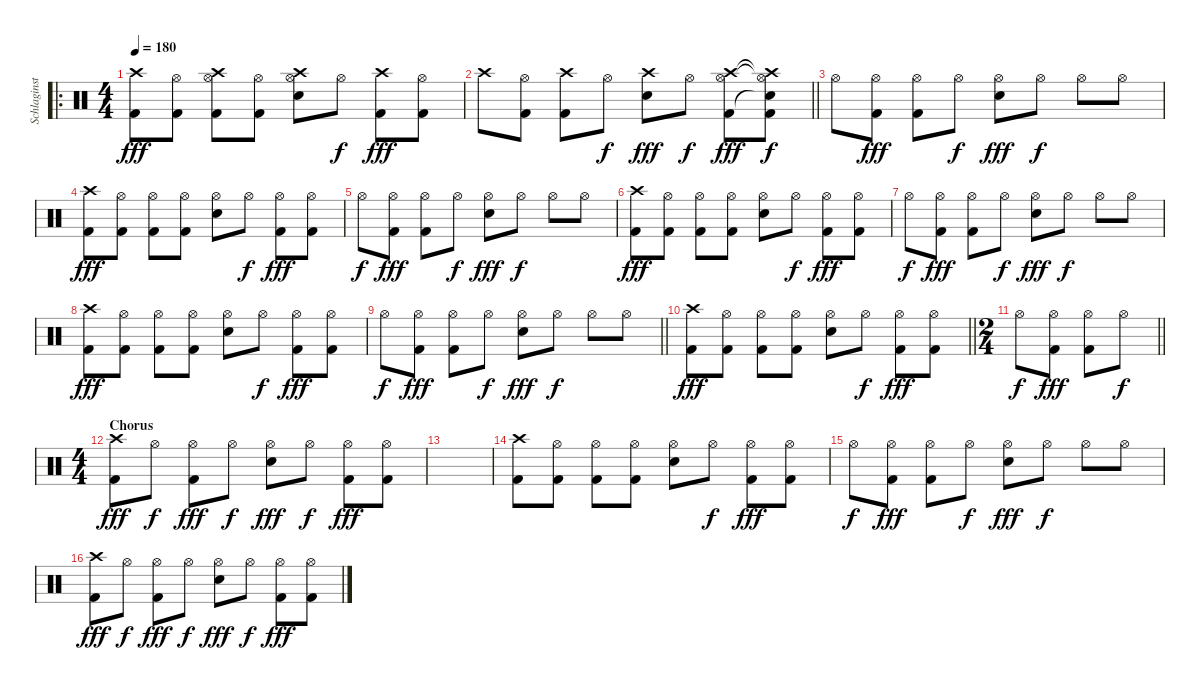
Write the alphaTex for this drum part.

\track ("Schlaginstrumente - Auswahl" "Schlaginst") {instrument percussion}
\staff {score}
\articulation defaults
\ro
\ts (4 4)
\tempo 180
\clef neutral
\ks c
("Crash high (hit)" "Kick (hit) 2").8{dy fff} ("Hi-Hat (open)" "Kick (hit) 2").8 ("Hi-Hat (open)" "Crash high (hit)" "Kick (hit) 2").8 ("Hi-Hat (open)" "Kick (hit) 2").8 ("Hi-Hat (open)" "Crash high (hit)" "Snare (hit) 2").8 "Hi-Hat (open)".8{dy f} ("Crash high (hit)" "Kick (hit) 2").8{dy fff} ("Hi-Hat (open)" "Kick (hit) 2").8 |
\barLineRight lightlight "Crash high (hit)".8
("Hi-Hat (open)" "Kick (hit) 2").8 ("Crash high (hit)" "Kick (hit) 2").8 "Hi-Hat (open)".8{dy f} ("Crash high (hit)" "Snare (hit) 2").8{dy fff} "Hi-Hat (open)".8{dy f} ("Crash high (hit)" "Hi-Hat (open)" "Kick (hit) 2").8{dy fff} ("Crash high (hit)"{t} "Hi-Hat (open)"{t} "Snare (hit)"{t} "Kick (hit) 2"{t}).8{dy f} |
"Hi-Hat (open)".8 ("Hi-Hat (open)" "Kick (hit) 2").8{dy fff} ("Hi-Hat (open)" "Kick (hit) 2").8 "Hi-Hat (open)".8{dy f} ("Hi-Hat (open)" "Snare (hit) 2").8{dy fff} "Hi-Hat (open)".8{dy f} "Hi-Hat (open)".8 "Hi-Hat (open)".8 |
("Crash high (hit)" "Kick (hit) 2").8{dy fff} ("Hi-Hat (open)" "Kick (hit) 2").8 ("Hi-Hat (open)" "Kick (hit) 2").8 ("Hi-Hat (open)" "Kick (hit) 2").8 ("Hi-Hat (open)" "Snare (hit) 2").8 "Hi-Hat (open)".8{dy f} ("Hi-Hat (open)" "Kick (hit) 2").8{dy fff} ("Hi-Hat (open)" "Kick (hit) 2").8 |
"Hi-Hat (open)".8{dy f} ("Hi-Hat (open)" "Kick (hit) 2").8{dy fff} ("Hi-Hat (open)" "Kick (hit) 2").8 "Hi-Hat (open)".8{dy f} ("Hi-Hat (open)" "Snare (hit) 2").8{dy fff} "Hi-Hat (open)".8{dy f} "Hi-Hat (open)".8 "Hi-Hat (open)".8 |
("Crash high (hit)" "Kick (hit) 2").8{dy fff} ("Hi-Hat (open)" "Kick (hit) 2").8 ("Hi-Hat (open)" "Kick (hit) 2").8 ("Hi-Hat (open)" "Kick (hit) 2").8 ("Hi-Hat (open)" "Snare (hit) 2").8 "Hi-Hat (open)".8{dy f} ("Hi-Hat (open)" "Kick (hit) 2").8{dy fff} ("Hi-Hat (open)" "Kick (hit) 2").8 |
"Hi-Hat (open)".8{dy f} ("Hi-Hat (open)" "Kick (hit) 2").8{dy fff} ("Hi-Hat (open)" "Kick (hit) 2").8 "Hi-Hat (open)".8{dy f} ("Hi-Hat (open)" "Snare (hit) 2").8{dy fff} "Hi-Hat (open)".8{dy f} "Hi-Hat (open)".8 "Hi-Hat (open)".8 |
("Crash high (hit)" "Kick (hit) 2").8{dy fff} ("Hi-Hat (open)" "Kick (hit) 2").8 ("Hi-Hat (open)" "Kick (hit) 2").8 ("Hi-Hat (open)" "Kick (hit) 2").8 ("Hi-Hat (open)" "Snare (hit) 2").8 "Hi-Hat (open)".8{dy f} ("Hi-Hat (open)" "Kick (hit) 2").8{dy fff} ("Hi-Hat (open)" "Kick (hit) 2").8 |
\barLineRight lightlight "Hi-Hat (open)".8{dy f}
("Hi-Hat (open)" "Kick (hit) 2").8{dy fff} ("Hi-Hat (open)" "Kick (hit) 2").8 "Hi-Hat (open)".8{dy f} ("Hi-Hat (open)" "Snare (hit) 2").8{dy fff} "Hi-Hat (open)".8{dy f} "Hi-Hat (open)".8 "Hi-Hat (open)".8 |
\barLineRight lightlight
("Crash high (hit)" "Kick (hit) 2").8{dy fff} ("Hi-Hat (open)" "Kick (hit) 2").8 ("Hi-Hat (open)" "Kick (hit) 2").8 ("Hi-Hat (open)" "Kick (hit) 2").8 ("Hi-Hat (open)" "Snare (hit) 2").8 "Hi-Hat (open)".8{dy f} ("Hi-Hat (open)" "Kick (hit) 2").8{dy fff} ("Hi-Hat (open)" "Kick (hit) 2").8 |
\ts (2 4)
\barLineRight lightlight "Hi-Hat (open)".8{dy f}
("Hi-Hat (open)" "Kick (hit) 2").8{dy fff} ("Hi-Hat (open)" "Kick (hit) 2").8 "Hi-Hat (open)".8{dy f} |
\ts (4 4)
\section ("" "Chorus")
("Crash high (hit)" "Kick (hit) 2").8{dy fff} "Hi-Hat (open)".8{dy f} ("Hi-Hat (open)" "Kick (hit) 2").8{dy fff} "Hi-Hat (open)".8{dy f} ("Hi-Hat (open)" "Snare (hit) 2").8{dy fff} "Hi-Hat (open)".8{dy f} ("Hi-Hat (open)" "Kick (hit) 2").8{dy fff} ("Hi-Hat (open)" "Kick (hit) 2").8 |
|
("Crash high (hit)" "Kick (hit) 2").8 ("Hi-Hat (open)" "Kick (hit) 2").8 ("Hi-Hat (open)" "Kick (hit) 2").8 ("Hi-Hat (open)" "Kick (hit) 2").8 ("Hi-Hat (open)" "Snare (hit) 2").8 "Hi-Hat (open)".8{dy f} ("Hi-Hat (open)" "Kick (hit) 2").8{dy fff} ("Hi-Hat (open)" "Kick (hit) 2").8 |
"Hi-Hat (open)".8{dy f} ("Hi-Hat (open)" "Kick (hit) 2").8{dy fff} ("Hi-Hat (open)" "Kick (hit) 2").8 "Hi-Hat (open)".8{dy f} ("Hi-Hat (open)" "Snare (hit) 2").8{dy fff} "Hi-Hat (open)".8{dy f} "Hi-Hat (open)".8 "Hi-Hat (open)".8 |
("Crash high (hit)" "Kick (hit) 2").8{dy fff} "Hi-Hat (open)".8{dy f} ("Hi-Hat (open)" "Kick (hit) 2").8{dy fff} "Hi-Hat (open)".8{dy f} ("Hi-Hat (open)" "Snare (hit) 2").8{dy fff} "Hi-Hat (open)".8{dy f} ("Hi-Hat (open)" "Kick (hit) 2").8{dy fff} ("Hi-Hat (open)" "Kick (hit) 2").8
